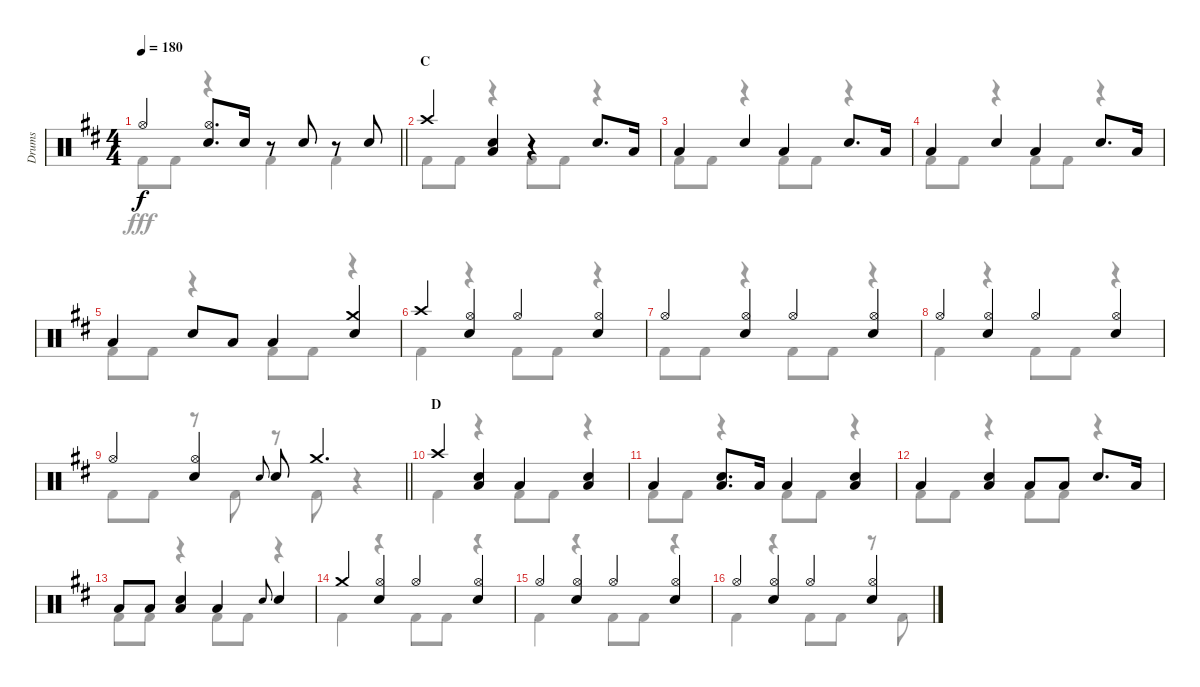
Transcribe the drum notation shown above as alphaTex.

\track ("Drums" "Drums") {instrument percussion}
\staff {score}
\articulation defaults
\voice
\ts (4 4)
\tempo 180
\clef neutral
\barLineRight lightlight
\ks d "Hi-Hat (open)".4{dy f}
("Hi-Hat (open)" "Snare (hit) 2").8{d} "Snare (hit) 2".16 r.8 "Snare (hit) 2".8 r.8 "Snare (hit) 2".8 |
\section ("" "C")
"Crash high (hit)".4 ("Snare (hit) 2" "Low Tom (hit)").4 r.4 "Snare (hit) 2".8{d} "Low Tom (hit)".16 |
"Low Tom (hit)".4 "Snare (hit) 2".4 "Low Tom (hit)".4 "Snare (hit) 2".8{d} "Low Tom (hit)".16 |
"Low Tom (hit)".4 "Snare (hit) 2".4 "Low Tom (hit)".4 "Snare (hit) 2".8{d} "Low Tom (hit)".16 |
"Low Tom (hit)".4 "Snare (hit) 2".8 "Low Tom (hit)".8 "Low Tom (hit)".4 ("Crash medium (hit)" "Snare (hit) 2").4 |
"Crash high (hit)".4 ("Hi-Hat (open)" "Snare (hit) 2").4 "Hi-Hat (open)".4 ("Hi-Hat (open)" "Snare (hit) 2").4 |
"Hi-Hat (open)".4 ("Hi-Hat (open)" "Snare (hit) 2").4 "Hi-Hat (open)".4 ("Hi-Hat (open)" "Snare (hit) 2").4 |
"Hi-Hat (open)".4 ("Hi-Hat (open)" "Snare (hit) 2").4 "Hi-Hat (open)".4 ("Hi-Hat (open)" "Snare (hit) 2").4 |
\barLineRight lightlight "Hi-Hat (open)".4
("Hi-Hat (open)" "Snare (hit) 2").4 "Snare (hit) 2".8{gr onbeat} "Snare (hit) 2".8 "Crash medium (hit)".4{d} |
\section ("" "D")
"Crash high (hit)".4 ("Snare (hit) 2" "Low Tom (hit)").4 "Low Tom (hit)".4 ("Snare (hit) 2" "Low Tom (hit)").4 |
"Low Tom (hit)".4 ("Snare (hit) 2" "Low Tom (hit)").8{d} "Low Tom (hit)".16 "Low Tom (hit)".4 ("Snare (hit) 2" "Low Tom (hit)").4 |
"Low Tom (hit)".4 ("Snare (hit) 2" "Low Tom (hit)").4 "Low Tom (hit)".8 "Low Tom (hit)".8 "Snare (hit) 2".8{d} "Low Tom (hit)".16 |
"Low Tom (hit)".8 "Low Tom (hit)".8 ("Snare (hit) 2" "Low Tom (hit)").4 "Low Tom (hit)".4 "Snare (hit) 2".8{gr onbeat} "Snare (hit) 2".4 |
"Crash medium (hit)".4 ("Hi-Hat (open)" "Snare (hit) 2").4 "Hi-Hat (open)".4 ("Hi-Hat (open)" "Snare (hit) 2").4 |
"Hi-Hat (open)".4 ("Hi-Hat (open)" "Snare (hit) 2").4 "Hi-Hat (open)".4 ("Hi-Hat (open)" "Snare (hit) 2").4 |
"Hi-Hat (open)".4 ("Hi-Hat (open)" "Snare (hit) 2").4 "Hi-Hat (open)".4 ("Hi-Hat (open)" "Snare (hit) 2").4
\voice
\clef neutral
\ottava regular
\simile none
\barLineRight lightlight
\ks d "Kick (hit) 2".8{dy fff} "Kick (hit) 2".8
r.4 "Kick (hit) 2".4 "Kick (hit) 2".4 |
"Kick (hit) 2".8 "Kick (hit) 2".8 r.4 "Kick (hit) 2".8 "Kick (hit) 2".8 r.4 |
"Kick (hit) 2".8 "Kick (hit) 2".8 r.4 "Kick (hit) 2".8 "Kick (hit) 2".8 r.4 |
"Kick (hit) 2".8 "Kick (hit) 2".8 r.4 "Kick (hit) 2".8 "Kick (hit) 2".8 r.4 |
"Kick (hit) 2".8 "Kick (hit) 2".8 r.4 "Kick (hit) 2".8 "Kick (hit) 2".8 r.4 |
"Kick (hit) 2".4 r.4 "Kick (hit) 2".8 "Kick (hit) 2".8 r.4 |
"Kick (hit) 2".8 "Kick (hit) 2".8 r.4 "Kick (hit) 2".8 "Kick (hit) 2".8 r.4 |
"Kick (hit) 2".4 r.4 "Kick (hit) 2".8 "Kick (hit) 2".8 r.4 |
\barLineRight lightlight "Kick (hit) 2".8 "Kick (hit) 2".8
r.8 "Kick (hit) 2".8 r.8 "Kick (hit) 2".8 r.4 |
"Kick (hit) 2".4 r.4 "Kick (hit) 2".8 "Kick (hit) 2".8 r.4 |
"Kick (hit) 2".8 "Kick (hit) 2".8 r.4 "Kick (hit) 2".8 "Kick (hit) 2".8 r.4 |
"Kick (hit) 2".8 "Kick (hit) 2".8 r.4 "Kick (hit) 2".8 "Kick (hit) 2".8 r.4 |
"Kick (hit) 2".8 "Kick (hit) 2".8 r.4 "Kick (hit) 2".8 "Kick (hit) 2".8 r.4 |
"Kick (hit) 2".4 r.4 "Kick (hit) 2".8 "Kick (hit) 2".8 r.4 |
"Kick (hit) 2".4 r.4 "Kick (hit) 2".8 "Kick (hit) 2".8 r.4 |
"Kick (hit) 2".4 r.4 "Kick (hit) 2".8 "Kick (hit) 2".8 r.8 "Kick (hit) 2".8
